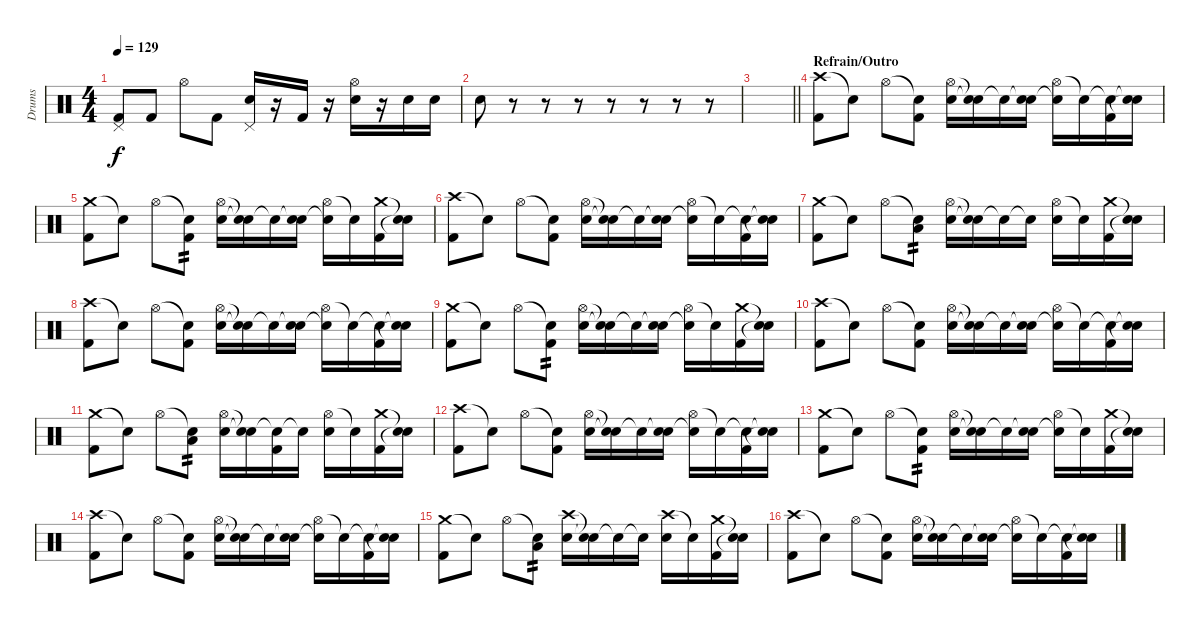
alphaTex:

\track ("Drums" "Drums") {instrument percussion}
\staff {score}
\articulation defaults
\ts (4 4)
\tempo 129
\clef neutral
\ks c
("Pedal Hi-Hat (hit)" "Kick (hit) 2").8{dy f} "Kick (hit) 2".8 "Hi-Hat (open)".8 "Kick (hit) 2".8 ("Pedal Hi-Hat (hit)" "Electric Snare (hit)").16 r.16 "Kick (hit) 2".16 r.16 ("Hi-Hat (open)" "Electric Snare (hit)").16 r.16 "Electric Snare (hit)".16 "Electric Snare (hit)".16 |
"Electric Snare (hit)".8 r.8 r.8 r.8 r.8 r.8 r.8 r.8 |
\barLineRight lightlight
|
\section ("" "Refrain/Outro")
("Crash high (hit)" "Kick (hit) 2").8{volume 15} "Snare (hit)"{t}.8 "Hi-Hat (open)".8 ("Snare (hit)"{t} "Kick (hit) 2").8 ("Hi-Hat (open)" "Electric Snare (hit)").16 ("Snare (hit)"{t} "Snare (hit)"{t}).16 "Snare (hit)"{t}.16 ("Snare (hit)"{t} "Electric Snare (hit)").16 ("Hi-Hat (open)" "Snare (hit)"{t}).16 "Snare (hit)"{t}.16 ("Snare (hit)"{t} "Kick (hit) 2").16 ("Snare (hit)"{t} "Snare (hit)"{t}).16 |
("Crash medium (hit)" "Kick (hit) 2").8 "Snare (hit)"{t}.8 "Hi-Hat (open)".8 ("Snare (hit)"{t} "Kick (hit) 2").8{tp 2} ("Hi-Hat (open)" "Electric Snare (hit)").16 ("Snare (hit)"{t} "Snare (hit)"{t}).16 "Snare (hit)"{t}.16 ("Snare (hit)"{t} "Electric Snare (hit)").16 ("Hi-Hat (open)" "Snare (hit)"{t}).16 "Snare (hit)"{t}.16 ("Crash medium (hit)" "Kick (hit) 2").16 ("Snare (hit)"{t} "Snare (hit)"{t}).16 |
("Crash high (hit)" "Kick (hit) 2").8 "Snare (hit)"{t}.8 "Hi-Hat (open)".8 ("Snare (hit)"{t} "Kick (hit) 2").8 ("Hi-Hat (open)" "Electric Snare (hit)").16 ("Snare (hit)"{t} "Snare (hit)"{t}).16 "Snare (hit)"{t}.16 ("Snare (hit)"{t} "Electric Snare (hit)").16 ("Hi-Hat (open)" "Snare (hit)"{t}).16 "Snare (hit)"{t}.16 ("Snare (hit)"{t} "Kick (hit) 2").16 ("Snare (hit)"{t} "Snare (hit)"{t}).16 |
("Crash medium (hit)" "Kick (hit) 2").8 "Snare (hit)"{t}.8 "Hi-Hat (open)".8 ("Snare (hit)"{t} "Low Tom (hit)").8{tp 2} ("Hi-Hat (open)" "Electric Snare (hit)").16 ("Snare (hit)"{t} "Snare (hit)"{t}).16 "Snare (hit)"{t}.16 "Snare (hit)"{t}.16 ("Hi-Hat (open)" "Electric Snare (hit)").16 "Snare (hit)"{t}.16 ("Crash medium (hit)" "Kick (hit) 2").16 ("Snare (hit)"{t} "Snare (hit)"{t}).16 |
("Crash high (hit)" "Kick (hit) 2").8 "Snare (hit)"{t}.8 "Hi-Hat (open)".8 ("Snare (hit)"{t} "Kick (hit) 2").8 ("Hi-Hat (open)" "Electric Snare (hit)").16 ("Snare (hit)"{t} "Snare (hit)"{t}).16 "Snare (hit)"{t}.16 ("Snare (hit)"{t} "Electric Snare (hit)").16 ("Hi-Hat (open)" "Snare (hit)"{t}).16 "Snare (hit)"{t}.16 ("Snare (hit)"{t} "Kick (hit) 2").16 ("Snare (hit)"{t} "Snare (hit)"{t}).16 |
("Crash medium (hit)" "Kick (hit) 2").8 "Snare (hit)"{t}.8 "Hi-Hat (open)".8 ("Snare (hit)"{t} "Kick (hit) 2").8{tp 2} ("Hi-Hat (open)" "Electric Snare (hit)").16 ("Snare (hit)"{t} "Snare (hit)"{t}).16 "Snare (hit)"{t}.16 ("Snare (hit)"{t} "Electric Snare (hit)").16 ("Hi-Hat (open)" "Snare (hit)"{t}).16 "Snare (hit)"{t}.16 ("Crash medium (hit)" "Kick (hit) 2").16 ("Snare (hit)"{t} "Snare (hit)"{t}).16 |
("Crash high (hit)" "Kick (hit) 2").8 "Snare (hit)"{t}.8 "Hi-Hat (open)".8 ("Snare (hit)"{t} "Kick (hit) 2").8 ("Hi-Hat (open)" "Electric Snare (hit)").16 ("Snare (hit)"{t} "Snare (hit)"{t}).16 "Snare (hit)"{t}.16 ("Snare (hit)"{t} "Electric Snare (hit)").16 ("Hi-Hat (open)" "Snare (hit)"{t}).16 "Snare (hit)"{t}.16 ("Snare (hit)"{t} "Kick (hit) 2").16 ("Snare (hit)"{t} "Snare (hit)"{t}).16 |
("Crash medium (hit)" "Kick (hit) 2").8 "Snare (hit)"{t}.8 "Hi-Hat (open)".8 ("Snare (hit)"{t} "Low Tom (hit)").8{tp 2} ("Hi-Hat (open)" "Electric Snare (hit)").16 ("Snare (hit)"{t} "Snare (hit)"{t}).16 ("Snare (hit)"{t} "Kick (hit) 2").16 "Snare (hit)"{t}.16 ("Hi-Hat (open)" "Electric Snare (hit)").16 "Snare (hit)"{t}.16 ("Crash medium (hit)" "Kick (hit) 2").16 ("Snare (hit)"{t} "Snare (hit)"{t}).16 |
("Crash high (hit)" "Kick (hit) 2").8 "Snare (hit)"{t}.8 "Hi-Hat (open)".8 ("Snare (hit)"{t} "Kick (hit) 2").8 ("Hi-Hat (open)" "Electric Snare (hit)").16 ("Snare (hit)"{t} "Snare (hit)"{t}).16 "Snare (hit)"{t}.16 ("Snare (hit)"{t} "Electric Snare (hit)").16 ("Hi-Hat (open)" "Snare (hit)"{t}).16 "Snare (hit)"{t}.16 ("Snare (hit)"{t} "Kick (hit) 2").16 ("Snare (hit)"{t} "Snare (hit)"{t}).16 |
("Crash medium (hit)" "Kick (hit) 2").8 "Snare (hit)"{t}.8 "Hi-Hat (open)".8 ("Snare (hit)"{t} "Kick (hit) 2").8{tp 2} ("Hi-Hat (open)" "Electric Snare (hit)").16 ("Snare (hit)"{t} "Snare (hit)"{t}).16 "Snare (hit)"{t}.16 ("Snare (hit)"{t} "Electric Snare (hit)").16 ("Hi-Hat (open)" "Snare (hit)"{t}).16 "Snare (hit)"{t}.16 ("Crash medium (hit)" "Kick (hit) 2").16 ("Snare (hit)"{t} "Snare (hit)"{t}).16 |
("Crash high (hit)" "Kick (hit) 2").8 "Snare (hit)"{t}.8 "Hi-Hat (open)".8 ("Snare (hit)"{t} "Kick (hit) 2").8 ("Hi-Hat (open)" "Electric Snare (hit)").16 ("Snare (hit)"{t} "Snare (hit)"{t}).16 "Snare (hit)"{t}.16 ("Snare (hit)"{t} "Electric Snare (hit)").16 ("Hi-Hat (open)" "Snare (hit)"{t}).16 "Snare (hit)"{t}.16 ("Snare (hit)"{t} "Kick (hit) 2").16 ("Snare (hit)"{t} "Snare (hit)"{t}).16 |
("Crash medium (hit)" "Kick (hit) 2").8 "Snare (hit)"{t}.8 "Hi-Hat (open)".8 ("Snare (hit)"{t} "Low Tom (hit)").8{tp 2} ("Crash high (hit)" "Electric Snare (hit)").16 ("Snare (hit)"{t} "Snare (hit)"{t}).16 "Snare (hit)"{t}.16 "Snare (hit)"{t}.16 ("Crash high (hit)" "Electric Snare (hit)").16 "Snare (hit)"{t}.16 ("Crash medium (hit)" "Kick (hit) 2").16 ("Snare (hit)"{t} "Snare (hit)"{t}).16 |
("Crash high (hit)" "Kick (hit) 2").8 "Snare (hit)"{t}.8 "Hi-Hat (open)".8 ("Snare (hit)"{t} "Kick (hit) 2").8 ("Hi-Hat (open)" "Electric Snare (hit)").16 ("Snare (hit)"{t} "Snare (hit)"{t}).16 "Snare (hit)"{t}.16 ("Snare (hit)"{t} "Electric Snare (hit)").16 ("Hi-Hat (open)" "Snare (hit)"{t}).16 "Snare (hit)"{t}.16 ("Snare (hit)"{t} "Kick (hit) 2").16 ("Snare (hit)"{t} "Snare (hit)"{t}).16
